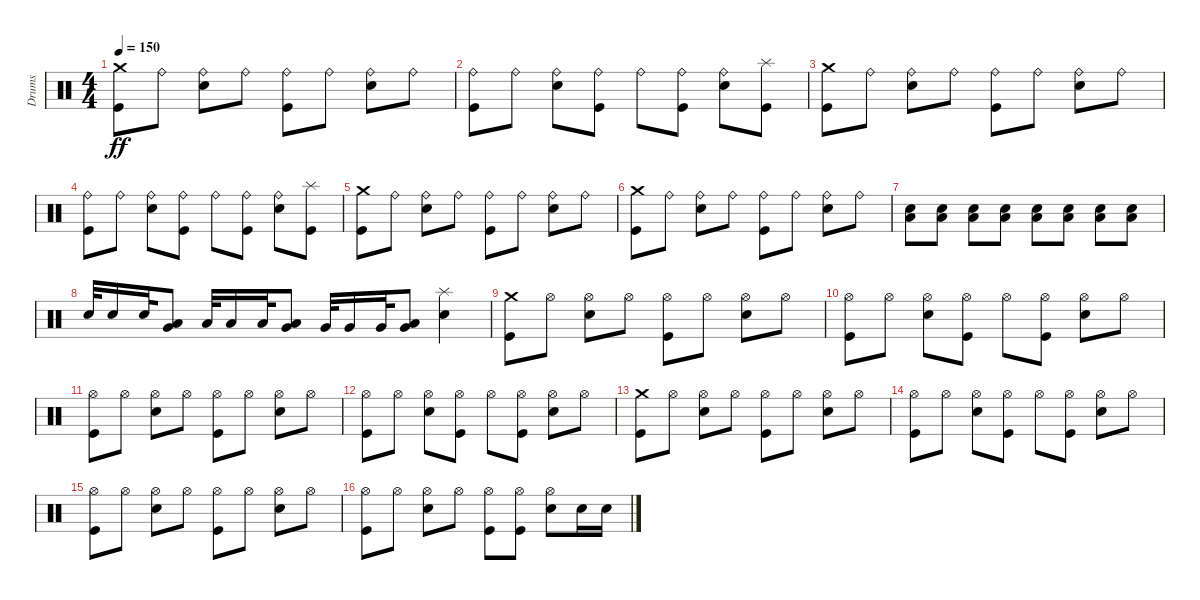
\track ("Drums" "Drums") {instrument percussion}
\staff {score}
\articulation defaults
\ts (4 4)
\tempo 150
\clef neutral
\ks c
("Kick (hit)" "Crash medium (hit)").8{dy ff} "Ride (bell)".8 ("Electric Snare (hit)" "Ride (bell)").8 "Ride (bell)".8 ("Kick (hit)" "Ride (bell)").8 "Ride (bell)".8 ("Electric Snare (hit)" "Ride (bell)").8 "Ride (bell)".8 |
("Kick (hit)" "Ride (bell)").8 "Ride (bell)".8 ("Electric Snare (hit)" "Ride (bell)").8 ("Kick (hit)" "Ride (bell)").8 "Ride (bell)".8 ("Kick (hit)" "Ride (bell)").8 ("Electric Snare (hit)" "Ride (bell)").8 ("Kick (hit)" "Splash (hit)").8 |
("Kick (hit)" "Crash medium (hit)").8 "Ride (bell)".8 ("Electric Snare (hit)" "Ride (bell)").8 "Ride (bell)".8 ("Kick (hit)" "Ride (bell)").8 "Ride (bell)".8 ("Electric Snare (hit)" "Ride (bell)").8 "Ride (bell)".8 |
("Kick (hit)" "Ride (bell)").8 "Ride (bell)".8 ("Electric Snare (hit)" "Ride (bell)").8 ("Kick (hit)" "Ride (bell)").8 "Ride (bell)".8 ("Kick (hit)" "Ride (bell)").8 ("Electric Snare (hit)" "Ride (bell)").8 ("Kick (hit)" "Splash (hit)").8 |
("Kick (hit)" "Crash medium (hit)").8 "Ride (bell)".8 ("Electric Snare (hit)" "Ride (bell)").8 "Ride (bell)".8 ("Kick (hit)" "Ride (bell)").8 "Ride (bell)".8 ("Electric Snare (hit)" "Ride (bell)").8 "Ride (bell)".8 |
("Kick (hit)" "Crash medium (hit)").8 "Ride (bell)".8 ("Electric Snare (hit)" "Ride (bell)").8 "Ride (bell)".8 ("Kick (hit)" "Ride (bell)").8 "Ride (bell)".8 ("Electric Snare (hit)" "Ride (bell)").8 "Ride (bell)".8 |
("Electric Snare (hit)" "Low Tom (hit)").8 ("Electric Snare (hit)" "Low Tom (hit)").8 ("Electric Snare (hit)" "Low Tom (hit)").8 ("Electric Snare (hit)" "Low Tom (hit)").8 ("Electric Snare (hit)" "Low Tom (hit)").8 ("Electric Snare (hit)" "Low Tom (hit)").8 ("Electric Snare (hit)" "Low Tom (hit)").8 ("Electric Snare (hit)" "Low Tom (hit)").8 |
"Electric Snare (hit)".32 "Electric Snare (hit)".16 "Electric Snare (hit)".32 ("Low Floor Tom (hit)" "Very Low Tom (hit)").8 "Low Tom (hit)".32 "Low Tom (hit)".16 "Low Tom (hit)".32 ("Low Floor Tom (hit)" "Very Low Tom (hit)").8 "Very Low Tom (hit)".32 "Very Low Tom (hit)".16 "Very Low Tom (hit)".32 ("Low Floor Tom (hit)" "Very Low Tom (hit)").8 ("Electric Snare (hit)" "Splash (hit)").4 |
("Kick (hit)" "Crash medium (hit)").8 "Hi-Hat (open)".8 ("Electric Snare (hit)" "Hi-Hat (open)").8 "Hi-Hat (open)".8 ("Kick (hit)" "Hi-Hat (open)").8 "Hi-Hat (open)".8 ("Electric Snare (hit)" "Hi-Hat (open)").8 "Hi-Hat (open)".8 |
("Kick (hit)" "Hi-Hat (open)").8 "Hi-Hat (open)".8 ("Electric Snare (hit)" "Hi-Hat (open)").8 ("Kick (hit)" "Hi-Hat (open)").8 "Hi-Hat (open)".8 ("Kick (hit)" "Hi-Hat (open)").8 ("Electric Snare (hit)" "Hi-Hat (open)").8 "Hi-Hat (open)".8 |
("Kick (hit)" "Hi-Hat (open)").8 "Hi-Hat (open)".8 ("Electric Snare (hit)" "Hi-Hat (open)").8 "Hi-Hat (open)".8 ("Kick (hit)" "Hi-Hat (open)").8 "Hi-Hat (open)".8 ("Electric Snare (hit)" "Hi-Hat (open)").8 "Hi-Hat (open)".8 |
("Kick (hit)" "Hi-Hat (open)").8 "Hi-Hat (open)".8 ("Electric Snare (hit)" "Hi-Hat (open)").8 ("Kick (hit)" "Hi-Hat (open)").8 "Hi-Hat (open)".8 ("Kick (hit)" "Hi-Hat (open)").8 ("Electric Snare (hit)" "Hi-Hat (open)").8 "Hi-Hat (open)".8 |
("Kick (hit)" "Crash medium (hit)").8 "Hi-Hat (open)".8 ("Electric Snare (hit)" "Hi-Hat (open)").8 "Hi-Hat (open)".8 ("Kick (hit)" "Hi-Hat (open)").8 "Hi-Hat (open)".8 ("Electric Snare (hit)" "Hi-Hat (open)").8 "Hi-Hat (open)".8 |
("Kick (hit)" "Hi-Hat (open)").8 "Hi-Hat (open)".8 ("Electric Snare (hit)" "Hi-Hat (open)").8 ("Kick (hit)" "Hi-Hat (open)").8 "Hi-Hat (open)".8 ("Kick (hit)" "Hi-Hat (open)").8 ("Electric Snare (hit)" "Hi-Hat (open)").8 "Hi-Hat (open)".8 |
("Kick (hit)" "Hi-Hat (open)").8 "Hi-Hat (open)".8 ("Electric Snare (hit)" "Hi-Hat (open)").8 "Hi-Hat (open)".8 ("Kick (hit)" "Hi-Hat (open)").8 "Hi-Hat (open)".8 ("Electric Snare (hit)" "Hi-Hat (open)").8 "Hi-Hat (open)".8 |
("Kick (hit)" "Hi-Hat (open)").8 "Hi-Hat (open)".8 ("Electric Snare (hit)" "Hi-Hat (open)").8 "Hi-Hat (open)".8 ("Kick (hit)" "Hi-Hat (open)").8 ("Kick (hit)" "Hi-Hat (open)").8 ("Electric Snare (hit)" "Hi-Hat (open)").8 "Electric Snare (hit)".16 "Electric Snare (hit)".16
